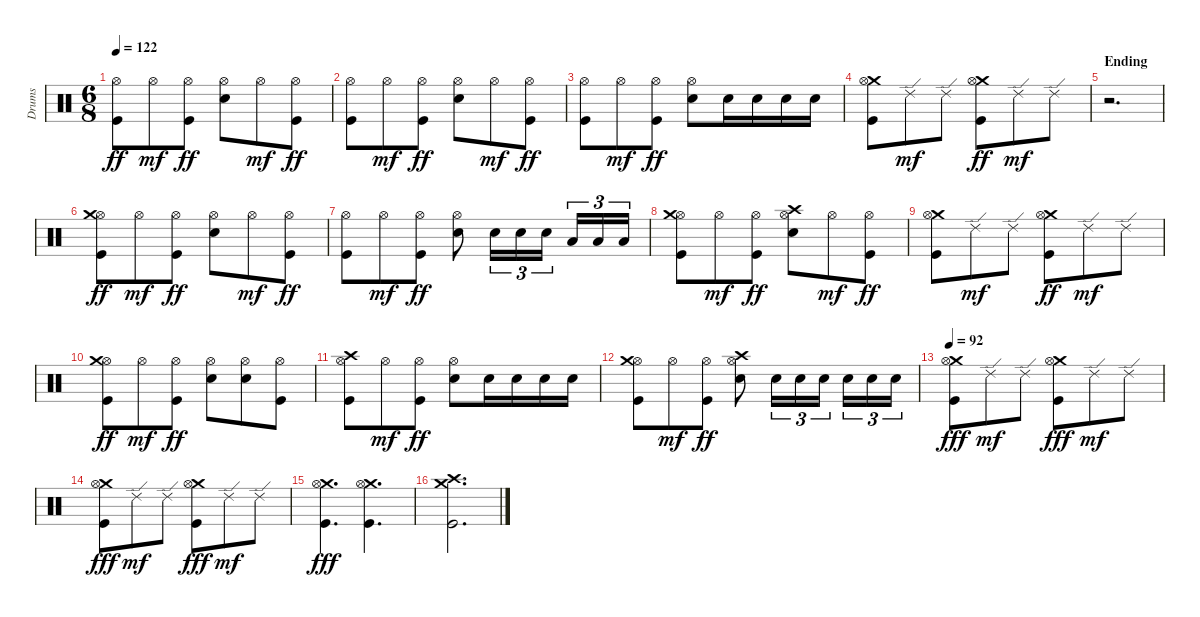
\track ("Drums" "Drums") {instrument percussion}
\staff {score}
\articulation defaults
\ts (6 8)
\tempo 122
\clef neutral
\ks c
("Hi-Hat (open)" "Kick (hit)").8{dy ff} "Hi-Hat (open)".8{dy mf} ("Hi-Hat (open)" "Kick (hit)").8{dy ff} ("Hi-Hat (open)" "Electric Snare (hit)").8 "Hi-Hat (open)".8{dy mf} ("Hi-Hat (open)" "Kick (hit)").8{dy ff} |
("Hi-Hat (open)" "Kick (hit)").8 "Hi-Hat (open)".8{dy mf} ("Hi-Hat (open)" "Kick (hit)").8{dy ff} ("Hi-Hat (open)" "Electric Snare (hit)").8 "Hi-Hat (open)".8{dy mf} ("Hi-Hat (open)" "Kick (hit)").8{dy ff} |
("Hi-Hat (open)" "Kick (hit)").8 "Hi-Hat (open)".8{dy mf} ("Hi-Hat (open)" "Kick (hit)").8{dy ff} ("Hi-Hat (open)" "Electric Snare (hit)").8 "Electric Snare (hit)".16 "Electric Snare (hit)".16 "Electric Snare (hit)".16 "Electric Snare (hit)".16 |
("Crash medium (hit)" "Hi-Hat (open)" "Kick (hit)").8 "Ride (edge) 2".8{dy mf} "Ride (edge) 2".8 ("Crash medium (hit)" "Hi-Hat (open)" "Kick (hit)").8{dy ff} "Ride (edge) 2".8{dy mf} "Ride (edge) 2".8 |
\section ("" "Ending")
r.2{d} |
("Hi-Hat (open)" "Crash medium (hit)" "Kick (hit)").8{dy ff} "Hi-Hat (open)".8{dy mf} ("Hi-Hat (open)" "Kick (hit)").8{dy ff} ("Hi-Hat (open)" "Electric Snare (hit)").8 "Hi-Hat (open)".8{dy mf} ("Hi-Hat (open)" "Kick (hit)").8{dy ff} |
("Hi-Hat (open)" "Kick (hit)").8 "Hi-Hat (open)".8{dy mf} ("Hi-Hat (open)" "Kick (hit)").8{dy ff} ("Hi-Hat (open)" "Electric Snare (hit)").8 "Electric Snare (hit)".16{tu (3 2)} "Electric Snare (hit)".16{tu (3 2)} "Electric Snare (hit)".16{tu (3 2)} "Low Tom (hit)".16{tu (3 2)} "Low Tom (hit)".16{tu (3 2)} "Low Floor Tom (hit)".16{tu (3 2)} |
("Hi-Hat (open)" "Crash medium (hit)" "Kick (hit)").8 "Hi-Hat (open)".8{dy mf} ("Hi-Hat (open)" "Kick (hit)").8{dy ff} ("Hi-Hat (open)" "Crash high (hit)" "Electric Snare (hit)").8 "Hi-Hat (open)".8{dy mf} ("Hi-Hat (open)" "Kick (hit)").8{dy ff} |
("Crash medium (hit)" "Hi-Hat (open)" "Kick (hit)").8 "Ride (edge) 2".8{dy mf} "Ride (edge) 2".8 ("Crash medium (hit)" "Hi-Hat (open)" "Kick (hit)").8{dy ff} "Ride (edge) 2".8{dy mf} "Ride (edge) 2".8 |
("Hi-Hat (open)" "Crash medium (hit)" "Kick (hit)").8{dy ff} "Hi-Hat (open)".8{dy mf} ("Hi-Hat (open)" "Kick (hit)").8{dy ff} ("Hi-Hat (open)" "Electric Snare (hit)").8 ("Hi-Hat (open)" "Electric Snare (hit)").8 ("Hi-Hat (open)" "Kick (hit)").8 |
("Hi-Hat (open)" "Crash high (hit)" "Kick (hit)").8 "Hi-Hat (open)".8{dy mf} ("Hi-Hat (open)" "Kick (hit)").8{dy ff} ("Hi-Hat (open)" "Electric Snare (hit)").8 "Electric Snare (hit)".16 "Electric Snare (hit)".16 "Electric Snare (hit)".16 "Electric Snare (hit)".16 |
("Hi-Hat (open)" "Crash medium (hit)" "Kick (hit)").8 "Hi-Hat (open)".8{dy mf} ("Hi-Hat (open)" "Kick (hit)").8{dy ff} ("Hi-Hat (open)" "Crash high (hit)" "Electric Snare (hit)").8 "Electric Snare (hit)".16{tu (3 2)} "Electric Snare (hit)".16{tu (3 2)} "Electric Snare (hit)".16{tu (3 2)} "Electric Snare (hit)".16{tu (3 2)} "Electric Snare (hit)".16{tu (3 2)} "Electric Snare (hit)".16{tu (3 2)} |
\tempo 92
("Crash medium (hit)" "Hi-Hat (open)" "Kick (hit)").8{dy fff} "Ride (edge) 2".8{dy mf} "Ride (edge) 2".8 ("Crash medium (hit)" "Hi-Hat (open)" "Kick (hit)").8{dy fff} "Ride (edge) 2".8{dy mf} "Ride (edge) 2".8 |
("Crash medium (hit)" "Hi-Hat (open)" "Kick (hit)").8{dy fff} "Ride (edge) 2".8{dy mf} "Ride (edge) 2".8 ("Crash medium (hit)" "Hi-Hat (open)" "Kick (hit)").8{dy fff} "Ride (edge) 2".8{dy mf} "Ride (edge) 2".8 |
("Crash medium (hit)" "Hi-Hat (open)" "Kick (hit)").4{d dy fff} ("Crash medium (hit)" "Hi-Hat (open)" "Kick (hit)").4{d} |
("Crash medium (hit)" "Crash high (hit)" "Kick (hit)").2{d}
